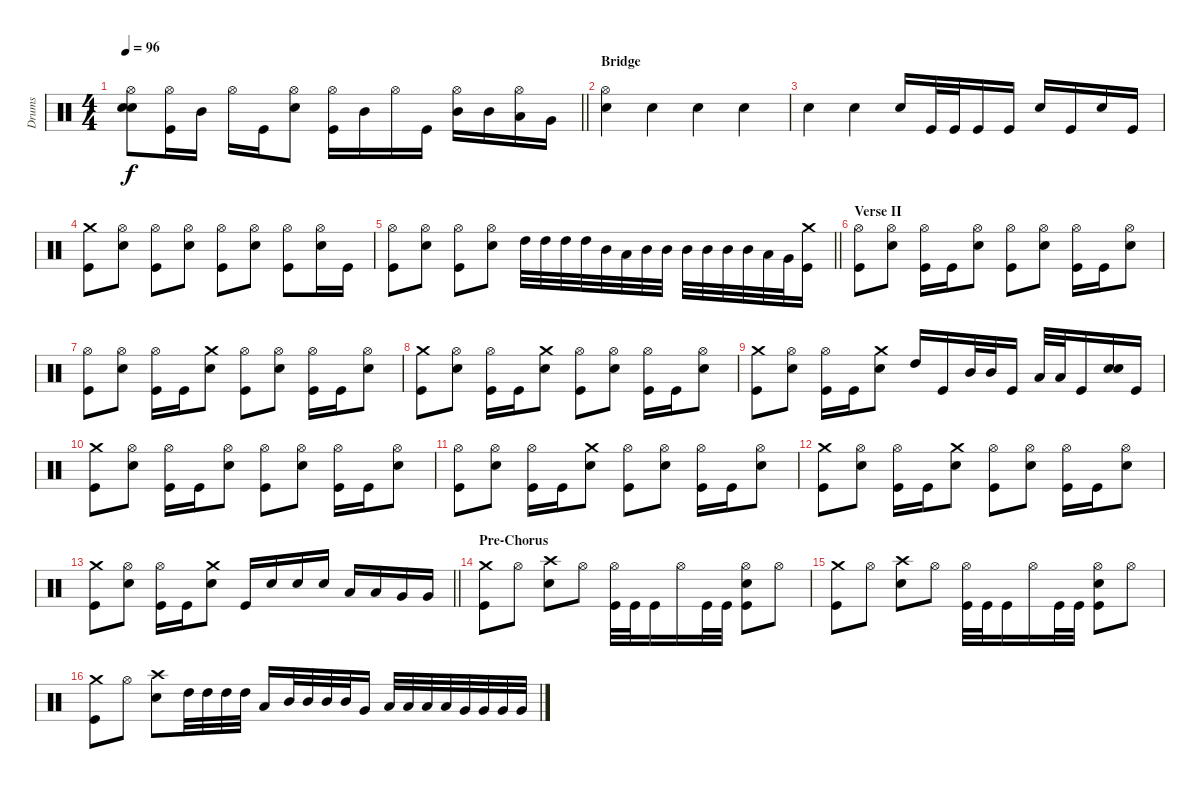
\track ("Drums" "Drums") {instrument percussion}
\staff {score}
\articulation defaults
\ts (4 4)
\tempo 96
\clef neutral
\barLineRight lightlight
\ks c
("Hi-Hat (open)" "Electric Snare (hit)" "Electric Snare (hit)").8{bd 60 dy f} ("Hi-Hat (open)" "Kick (hit)").16 "Mid Tom (hit)".16 "Hi-Hat (open)".16 "Kick (hit)".16 ("Hi-Hat (open)" "Electric Snare (hit)").8 ("Hi-Hat (open)" "Kick (hit)").16 "Mid Tom (hit)".16 "Hi-Hat (open)".16 "Kick (hit)".16 ("Hi-Hat (open)" "Mid Tom (hit)").16 "Mid Tom (hit)".16 ("Hi-Hat (open)" "Low Tom (hit)").16 "Very Low Tom (hit)".16 |
\section ("" "Bridge")
("Hi-Hat (open)" "Electric Snare (hit)").4 "Electric Snare (hit)".4 "Electric Snare (hit)".4 "Electric Snare (hit)".4 |
"Electric Snare (hit)".4 "Electric Snare (hit)".4 "Electric Snare (hit)".16 "Kick (hit)".32 "Kick (hit)".32 "Kick (hit)".16 "Kick (hit)".16 "Electric Snare (hit)".16 "Kick (hit)".16 "Electric Snare (hit)".16 "Kick (hit)".16 |
("Crash medium (hit)" "Kick (hit)").8 ("Hi-Hat (open)" "Electric Snare (hit)").8 ("Hi-Hat (open)" "Kick (hit)").8 ("Hi-Hat (open)" "Electric Snare (hit)").8 ("Hi-Hat (open)" "Kick (hit)").8 ("Hi-Hat (open)" "Electric Snare (hit)").8 ("Hi-Hat (open)" "Kick (hit)").8 ("Hi-Hat (open)" "Electric Snare (hit)").16 "Kick (hit)".16 |
\barLineRight lightlight
("Hi-Hat (open)" "Kick (hit)").8 ("Hi-Hat (open)" "Electric Snare (hit)").8 ("Hi-Hat (open)" "Kick (hit)").8 ("Hi-Hat (open)" "Electric Snare (hit)").8 "High Tom (hit)".32 "High Tom (hit)".32 "High Tom (hit)".32 "High Tom (hit)".32 "Mid Tom (hit)".32 "Low Tom (hit)".32 "Mid Tom (hit)".32 "Mid Tom (hit)".32 "Mid Tom (hit)".32 "Mid Tom (hit)".32 "Mid Tom (hit)".32 "Mid Tom (hit)".32 "Low Tom (hit)".32 "Very Low Tom (hit)".32 ("Crash medium (hit)" "Kick (hit)").16 |
\section ("" "Verse II")
("Hi-Hat (open)" "Kick (hit)").8 ("Hi-Hat (open)" "Electric Snare (hit)").8 ("Hi-Hat (open)" "Kick (hit)").16 "Kick (hit)".16 ("Hi-Hat (open)" "Electric Snare (hit)").8 ("Hi-Hat (open)" "Kick (hit)").8 ("Hi-Hat (open)" "Electric Snare (hit)").8 ("Hi-Hat (open)" "Kick (hit)").16 "Kick (hit)".16 ("Hi-Hat (open)" "Electric Snare (hit)").8 |
("Hi-Hat (open)" "Kick (hit)").8 ("Hi-Hat (open)" "Electric Snare (hit)").8 ("Hi-Hat (open)" "Kick (hit)").16 "Kick (hit)".16 ("Crash medium (hit)" "Electric Snare (hit)").8 ("Hi-Hat (open)" "Kick (hit)").8 ("Hi-Hat (open)" "Electric Snare (hit)").8 ("Hi-Hat (open)" "Kick (hit)").16 "Kick (hit)".16 ("Hi-Hat (open)" "Electric Snare (hit)").8 |
("Crash medium (hit)" "Kick (hit)").8 ("Hi-Hat (open)" "Electric Snare (hit)").8 ("Hi-Hat (open)" "Kick (hit)").16 "Kick (hit)".16 ("Crash medium (hit)" "Electric Snare (hit)").8 ("Hi-Hat (open)" "Kick (hit)").8 ("Hi-Hat (open)" "Electric Snare (hit)").8 ("Hi-Hat (open)" "Kick (hit)").16 "Kick (hit)".16 ("Hi-Hat (open)" "Electric Snare (hit)").8 |
("Crash medium (hit)" "Kick (hit)").8 ("Hi-Hat (open)" "Electric Snare (hit)").8 ("Hi-Hat (open)" "Kick (hit)").16 "Kick (hit)".16 ("Crash medium (hit)" "Electric Snare (hit)").8 "High Tom (hit)".16 "Kick (hit)".16 "Mid Tom (hit)".32 "Mid Tom (hit)".32 "Kick (hit)".16 "Low Tom (hit)".32 "Low Tom (hit)".32 "Kick (hit)".16 ("Electric Snare (hit)" "Electric Snare (hit)").16{bd 60} "Kick (hit)".16 |
("Crash medium (hit)" "Kick (hit)").8 ("Hi-Hat (open)" "Electric Snare (hit)").8 ("Hi-Hat (open)" "Kick (hit)").16 "Kick (hit)".16 ("Hi-Hat (open)" "Electric Snare (hit)").8 ("Hi-Hat (open)" "Kick (hit)").8 ("Hi-Hat (open)" "Electric Snare (hit)").8 ("Hi-Hat (open)" "Kick (hit)").16 "Kick (hit)".16 ("Hi-Hat (open)" "Electric Snare (hit)").8 |
("Hi-Hat (open)" "Kick (hit)").8 ("Hi-Hat (open)" "Electric Snare (hit)").8 ("Hi-Hat (open)" "Kick (hit)").16 "Kick (hit)".16 ("Crash medium (hit)" "Electric Snare (hit)").8 ("Hi-Hat (open)" "Kick (hit)").8 ("Hi-Hat (open)" "Electric Snare (hit)").8 ("Hi-Hat (open)" "Kick (hit)").16 "Kick (hit)".16 ("Hi-Hat (open)" "Electric Snare (hit)").8 |
("Crash medium (hit)" "Kick (hit)").8 ("Hi-Hat (open)" "Electric Snare (hit)").8 ("Hi-Hat (open)" "Kick (hit)").16 "Kick (hit)".16 ("Crash medium (hit)" "Electric Snare (hit)").8 ("Hi-Hat (open)" "Kick (hit)").8 ("Hi-Hat (open)" "Electric Snare (hit)").8 ("Hi-Hat (open)" "Kick (hit)").16 "Kick (hit)".16 ("Hi-Hat (open)" "Electric Snare (hit)").8 |
\barLineRight lightlight
("Crash medium (hit)" "Kick (hit)").8 ("Hi-Hat (open)" "Electric Snare (hit)").8 ("Hi-Hat (open)" "Kick (hit)").16 "Kick (hit)".16 ("Crash medium (hit)" "Electric Snare (hit)").8 "Kick (hit)".16 "Electric Snare (hit)".16 "Electric Snare (hit)".16 "Electric Snare (hit)".16 "Low Tom (hit)".16 "Low Tom (hit)".16 "Very Low Tom (hit)".16 "Very Low Tom (hit)".16 |
\section ("" "Pre-Chorus")
("Crash medium (hit)" "Kick (hit)").8 "Hi-Hat (open)".8 ("Crash high (hit)" "Electric Snare (hit)").8 "Hi-Hat (open)".8 ("Hi-Hat (open)" "Kick (hit)").32 "Kick (hit)".32 "Kick (hit)".16 "Hi-Hat (open)".16 "Kick (hit)".32 "Kick (hit)".32 ("Hi-Hat (open)" "Electric Snare (hit)" "Kick (hit)").8 "Hi-Hat (open)".8 |
("Crash medium (hit)" "Kick (hit)").8 "Hi-Hat (open)".8 ("Crash high (hit)" "Electric Snare (hit)").8 "Hi-Hat (open)".8 ("Hi-Hat (open)" "Kick (hit)").32 "Kick (hit)".32 "Kick (hit)".16 "Hi-Hat (open)".16 "Kick (hit)".32 "Kick (hit)".32 ("Hi-Hat (open)" "Electric Snare (hit)" "Kick (hit)").8 "Hi-Hat (open)".8 |
("Crash medium (hit)" "Kick (hit)").8 "Hi-Hat (open)".8 ("Crash high (hit)" "Electric Snare (hit)").8 "High Tom (hit)".32 "High Tom (hit)".32 "High Tom (hit)".32 "High Tom (hit)".32 "Low Tom (hit)".16 "Mid Tom (hit)".32 "Mid Tom (hit)".32 "Mid Tom (hit)".32 "Mid Tom (hit)".32 "Very Low Tom (hit)".16 "Low Tom (hit)".32 "Low Tom (hit)".32 "Low Tom (hit)".32 "Low Tom (hit)".32 "Very Low Tom (hit)".32 "Very Low Tom (hit)".32 "Very Low Tom (hit)".32 "Very Low Tom (hit)".32
